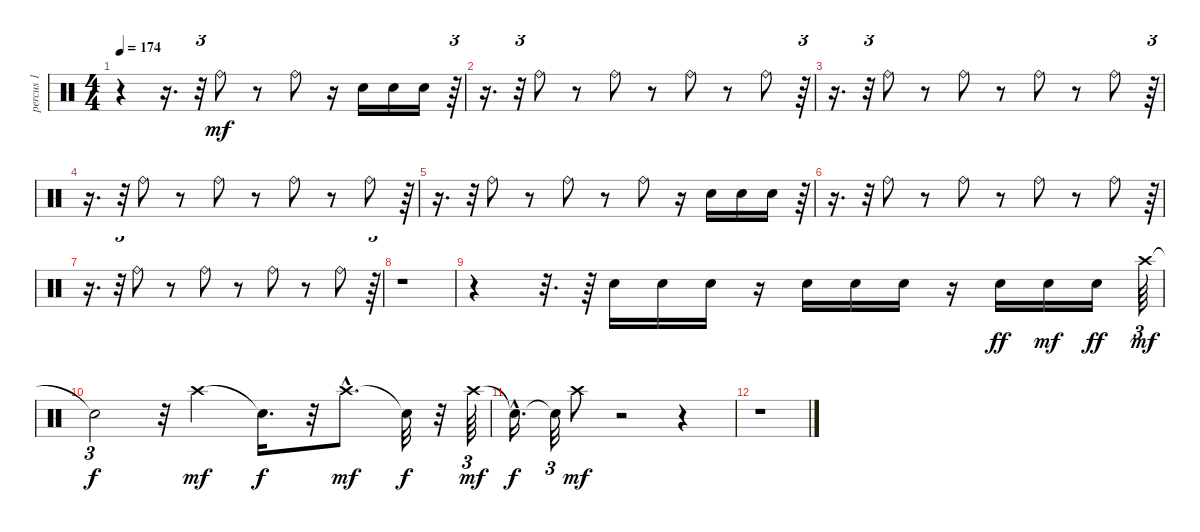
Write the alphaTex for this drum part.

\track ("percus 1" "percus 1") {instrument percussion}
\staff {score}
\articulation defaults
\ts (4 4)
\tempo 174
\clef neutral
\ks c
r.4{dy mf} r.16{d} r.32{tu (3 2)} "Ride (bell)".8 r.8 "Ride (bell)".8 r.16 "Electric Snare (hit)".16 "Electric Snare (hit)".16 "Electric Snare (hit)".16 r.64{tu (3 2)} |
r.16{d} r.32{tu (3 2)} "Ride (bell)".8 r.8 "Ride (bell)".8 r.8 "Ride (bell)".8 r.8 "Ride (bell)".8 r.64{tu (3 2)} |
r.16{d} r.32{tu (3 2)} "Ride (bell)".8 r.8 "Ride (bell)".8 r.8 "Ride (bell)".8 r.8 "Ride (bell)".8 r.64{tu (3 2)} |
r.16{d} r.32{tu (3 2)} "Ride (bell)".8 r.8 "Ride (bell)".8 r.8 "Ride (bell)".8 r.8 "Ride (bell)".8 r.64{tu (3 2)} |
r.16{d} r.32{tu (3 2)} "Ride (bell)".8 r.8 "Ride (bell)".8 r.8 "Ride (bell)".8 r.16 "Electric Snare (hit)".16 "Electric Snare (hit)".16 "Electric Snare (hit)".16 r.64{tu (3 2)} |
r.16{d} r.32{tu (3 2)} "Ride (bell)".8 r.8 "Ride (bell)".8 r.8 "Ride (bell)".8 r.8 "Ride (bell)".8 r.64{tu (3 2)} |
r.16{d} r.32{tu (3 2)} "Ride (bell)".8 r.8 "Ride (bell)".8 r.8 "Ride (bell)".8 r.8 "Ride (bell)".8 r.64{tu (3 2)} |
r.1 |
r.4 r.32{d} r.64 "Electric Snare (hit)".16 "Electric Snare (hit)".16 "Electric Snare (hit)".16 r.16 "Electric Snare (hit)".16 "Electric Snare (hit)".16 "Electric Snare (hit)".16 r.16 "Electric Snare (hit)".16{dy ff} "Electric Snare (hit)".16{dy mf} "Electric Snare (hit)".16{dy ff} "Crash high (hit)".64{tu (3 2) dy mf} |
"Snare (hit)"{t}.2{tu (3 2) dy f} r.32 "Crash high (hit)".4{dy mf} "Snare (hit)"{t}.16{d dy f} r.32 "Crash high (hit)"{hac}.8{d dy mf} "Snare (hit)"{t}.32{dy f} r.32 "Crash high (hit)".64{tu (3 2) dy mf} |
"Snare (hit)"{hac t}.16{d dy f} "Snare (hit)"{t}.32{tu (3 2)} "Crash high (hit)".8{dy mf} r.2 r.4 |
r.1
